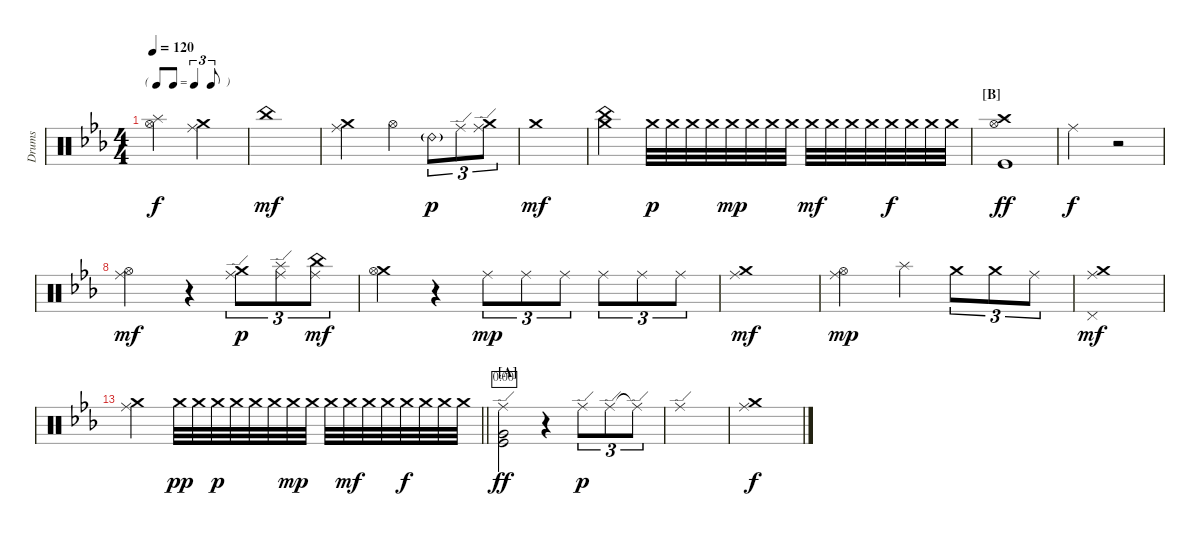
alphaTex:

\bracketExtendMode nobrackets
\otherSystemsTrackNameOrientation horizontal
\defaultBarNumberDisplay FirstOfSystem
\track ("Drumkit" "Drums") {instrument percussion}
\staff {score}
\articulation defaults
\ts (4 4)
\tf triplet8th
\tempo 120
\clef neutral
\ks cminor
("Hi-Hat (open)" "Splash (hit)").2{dy f} ("Ride (middle)" "Crash medium (hit)").2 |
"China (hit)".1{dy mf} |
("Ride (middle)" "Crash medium (hit)").2 "Hi-Hat (open)".4 "Ride (bell) 2"{g}.8{tu (3 2) dy p} "Ride (edge)".8{tu (3 2)} ("Ride (edge)" "Crash medium (hit)").8{tu (3 2)} |
"Crash medium (hit)".1{dy mf} |
("Crash medium (hit)" "China (hit)").2 "Crash medium (hit)".32{dy p} "Crash medium (hit)".32 "Crash medium (hit)".32 "Crash medium (hit)".32 "Crash medium (hit)".32{dy mp} "Crash medium (hit)".32 "Crash medium (hit)".32 "Crash medium (hit)".32 "Crash medium (hit)".32{dy mf} "Crash medium (hit)".32 "Crash medium (hit)".32 "Crash medium (hit)".32 "Crash medium (hit)".32{dy f} "Crash medium (hit)".32 "Crash medium (hit)".32 "Crash medium (hit)".32 |
\section ("B" "")
("Crash high (hit)" "Kick (hit)" "Hi-Hat (open)").1{dy ff} |
"Ride (middle)".2{dy f} r.2 |
("Ride (middle)" "Hi-Hat (open)").2{dy mf} r.4 ("Ride (edge)" "Crash medium (hit)").8{tu (3 2) dy p} ("Ride (edge)" "Splash (hit)").8{tu (3 2)} ("Ride (middle)" "China (hit)").8{tu (3 2) dy mf} |
("Crash medium (hit)" "Hi-Hat (open)").4 r.4 "Ride (middle)".8{tu (3 2) dy mp} "Ride (middle)".8{tu (3 2)} "Ride (middle)".8{tu (3 2)} "Ride (middle)".8{tu (3 2)} "Ride (middle)".8{tu (3 2)} "Ride (middle)".8{tu (3 2)} |
("Crash medium (hit)" "Ride (middle)").1{dy mf} |
("Hi-Hat (open)" "Ride (middle)").2{dy mp} "Splash (hit)".4 "Crash medium (hit)".8{tu (3 2)} "Crash medium (hit)".8{tu (3 2)} "Ride (middle)".8{tu (3 2)} |
("Crash medium (hit)" "Pedal Hi-Hat (hit)" "Ride (middle)").1{dy mf} |
\barLineRight lightlight
("Ride (middle)" "Crash medium (hit)").2 "Crash medium (hit)".32{dy pp} "Crash medium (hit)".32 "Crash medium (hit)".32{dy p} "Crash medium (hit)".32 "Crash medium (hit)".32 "Crash medium (hit)".32 "Crash medium (hit)".32{dy mp} "Crash medium (hit)".32 "Crash medium (hit)".32 "Crash medium (hit)".32{dy mf} "Crash medium (hit)".32 "Crash medium (hit)".32 "Crash medium (hit)".32{dy f} "Crash medium (hit)".32 "Crash medium (hit)".32 "Crash medium (hit)".32 |
\section ("A" "")
("Kick (hit)" "Ride (edge)" "Very Low Tom (hit)").2{dy ff timer} r.4 "Ride (edge)".8{tu (3 2) dy p} "Ride (edge)".8{tu (3 2)} "Ride (edge)"{t}.8{tu (3 2)} |
"Ride (edge)".1 |
("Ride (middle)" "Crash medium (hit)").1{dy f}
